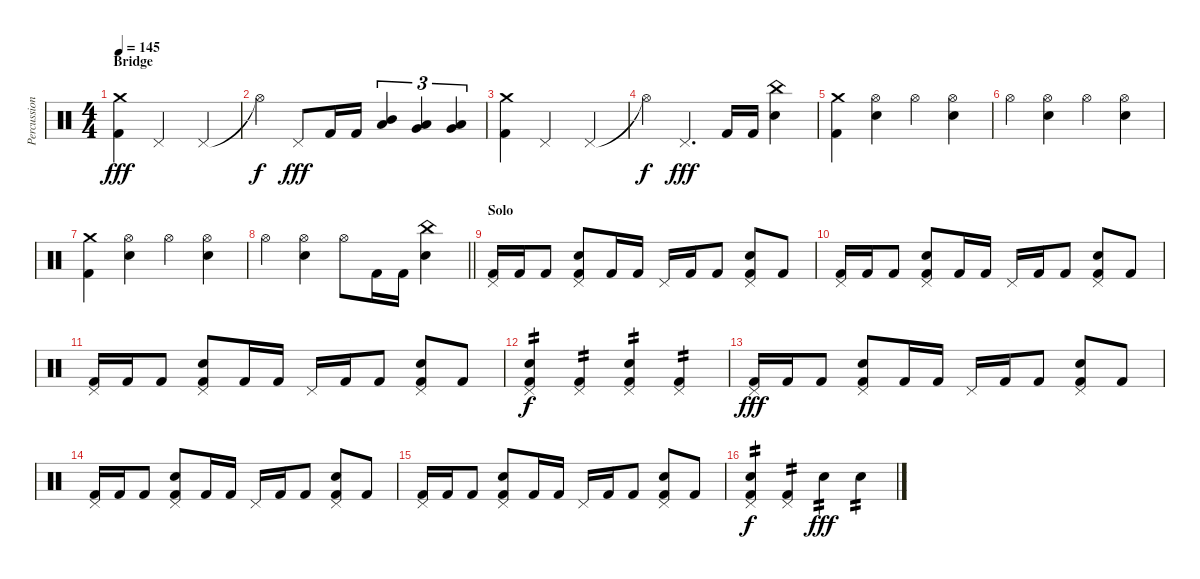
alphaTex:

\track ("Percussion" "Percussion") {instrument percussion}
\staff {score}
\articulation defaults
\ts (4 4)
\section ("" "Bridge")
\tempo 145
\clef neutral
\ks c
("Crash medium (hit)" "Kick (hit) 2").4{dy fff} "Pedal Hi-Hat (hit)".2 "Pedal Hi-Hat (hit)".4 |
"Hi-Hat (open)"{t}.4{dy f} "Pedal Hi-Hat (hit)".8{dy fff} "Kick (hit) 2".16 "Kick (hit) 2".16 ("Mid Tom (hit)" "Low Tom (hit)").4{tu (3 2)} ("Low Tom (hit)" "Very Low Tom (hit)").4{tu (3 2)} ("Very Low Tom (hit)" "Low Floor Tom (hit)").4{tu (3 2)} |
("Crash medium (hit)" "Kick (hit) 2").4 "Pedal Hi-Hat (hit)".2 "Pedal Hi-Hat (hit)".4 |
"Hi-Hat (open)"{t}.4{dy f} "Pedal Hi-Hat (hit)".4{d dy fff} "Kick (hit) 2".16 "Kick (hit) 2".16 ("Electric Snare (hit)" "China (hit)").4 |
("Crash medium (hit)" "Kick (hit) 2").4 ("Electric Snare (hit)" "Hi-Hat (open)").4 "Hi-Hat (open)".4 ("Electric Snare (hit)" "Hi-Hat (open)").4 |
"Hi-Hat (open)".4 ("Electric Snare (hit)" "Hi-Hat (open)").4 "Hi-Hat (open)".4 ("Electric Snare (hit)" "Hi-Hat (open)").4 |
("Crash medium (hit)" "Kick (hit) 2").4 ("Electric Snare (hit)" "Hi-Hat (open)").4 "Hi-Hat (open)".4 ("Electric Snare (hit)" "Hi-Hat (open)").4 |
\barLineRight lightlight "Hi-Hat (open)".4
("Electric Snare (hit)" "Hi-Hat (open)").4 "Hi-Hat (open)".8 "Kick (hit) 2".16 "Kick (hit) 2".16 ("Electric Snare (hit)" "China (hit)").4 |
\section ("" "Solo")
("Pedal Hi-Hat (hit)" "Kick (hit) 2").16 "Kick (hit) 2".16 "Kick (hit) 2".8 ("Electric Snare (hit)" "Pedal Hi-Hat (hit)" "Kick (hit) 2").8 "Kick (hit) 2".16 "Kick (hit) 2".16 "Pedal Hi-Hat (hit)".16 "Kick (hit) 2".16 "Kick (hit) 2".8 ("Electric Snare (hit)" "Pedal Hi-Hat (hit)" "Kick (hit) 2").8 "Kick (hit) 2".8 |
("Pedal Hi-Hat (hit)" "Kick (hit) 2").16 "Kick (hit) 2".16 "Kick (hit) 2".8 ("Electric Snare (hit)" "Pedal Hi-Hat (hit)" "Kick (hit) 2").8 "Kick (hit) 2".16 "Kick (hit) 2".16 "Pedal Hi-Hat (hit)".16 "Kick (hit) 2".16 "Kick (hit) 2".8 ("Electric Snare (hit)" "Pedal Hi-Hat (hit)" "Kick (hit) 2").8 "Kick (hit) 2".8 |
("Pedal Hi-Hat (hit)" "Kick (hit) 2").16 "Kick (hit) 2".16 "Kick (hit) 2".8 ("Electric Snare (hit)" "Pedal Hi-Hat (hit)" "Kick (hit) 2").8 "Kick (hit) 2".16 "Kick (hit) 2".16 "Pedal Hi-Hat (hit)".16 "Kick (hit) 2".16 "Kick (hit) 2".8 ("Electric Snare (hit)" "Pedal Hi-Hat (hit)" "Kick (hit) 2").8 "Kick (hit) 2".8 |
("Electric Snare (hit)" "Pedal Hi-Hat (hit)" "Kick (hit) 2").4{tp 2 dy f} ("Pedal Hi-Hat (hit)" "Kick (hit) 2").4{tp 2} ("Electric Snare (hit)" "Pedal Hi-Hat (hit)" "Kick (hit) 2").4{tp 2} ("Pedal Hi-Hat (hit)" "Kick (hit) 2").4{tp 2} |
("Pedal Hi-Hat (hit)" "Kick (hit) 2").16{dy fff} "Kick (hit) 2".16 "Kick (hit) 2".8 ("Electric Snare (hit)" "Pedal Hi-Hat (hit)" "Kick (hit) 2").8 "Kick (hit) 2".16 "Kick (hit) 2".16 "Pedal Hi-Hat (hit)".16 "Kick (hit) 2".16 "Kick (hit) 2".8 ("Electric Snare (hit)" "Pedal Hi-Hat (hit)" "Kick (hit) 2").8 "Kick (hit) 2".8 |
("Pedal Hi-Hat (hit)" "Kick (hit) 2").16 "Kick (hit) 2".16 "Kick (hit) 2".8 ("Electric Snare (hit)" "Pedal Hi-Hat (hit)" "Kick (hit) 2").8 "Kick (hit) 2".16 "Kick (hit) 2".16 "Pedal Hi-Hat (hit)".16 "Kick (hit) 2".16 "Kick (hit) 2".8 ("Electric Snare (hit)" "Pedal Hi-Hat (hit)" "Kick (hit) 2").8 "Kick (hit) 2".8 |
("Pedal Hi-Hat (hit)" "Kick (hit) 2").16 "Kick (hit) 2".16 "Kick (hit) 2".8 ("Electric Snare (hit)" "Pedal Hi-Hat (hit)" "Kick (hit) 2").8 "Kick (hit) 2".16 "Kick (hit) 2".16 "Pedal Hi-Hat (hit)".16 "Kick (hit) 2".16 "Kick (hit) 2".8 ("Electric Snare (hit)" "Pedal Hi-Hat (hit)" "Kick (hit) 2").8 "Kick (hit) 2".8 |
("Electric Snare (hit)" "Pedal Hi-Hat (hit)" "Kick (hit) 2").4{tp 2 dy f} ("Pedal Hi-Hat (hit)" "Kick (hit) 2").4{tp 2} "Electric Snare (hit)".4{tp 2 dy fff} "Electric Snare (hit)".4{tp 2}
